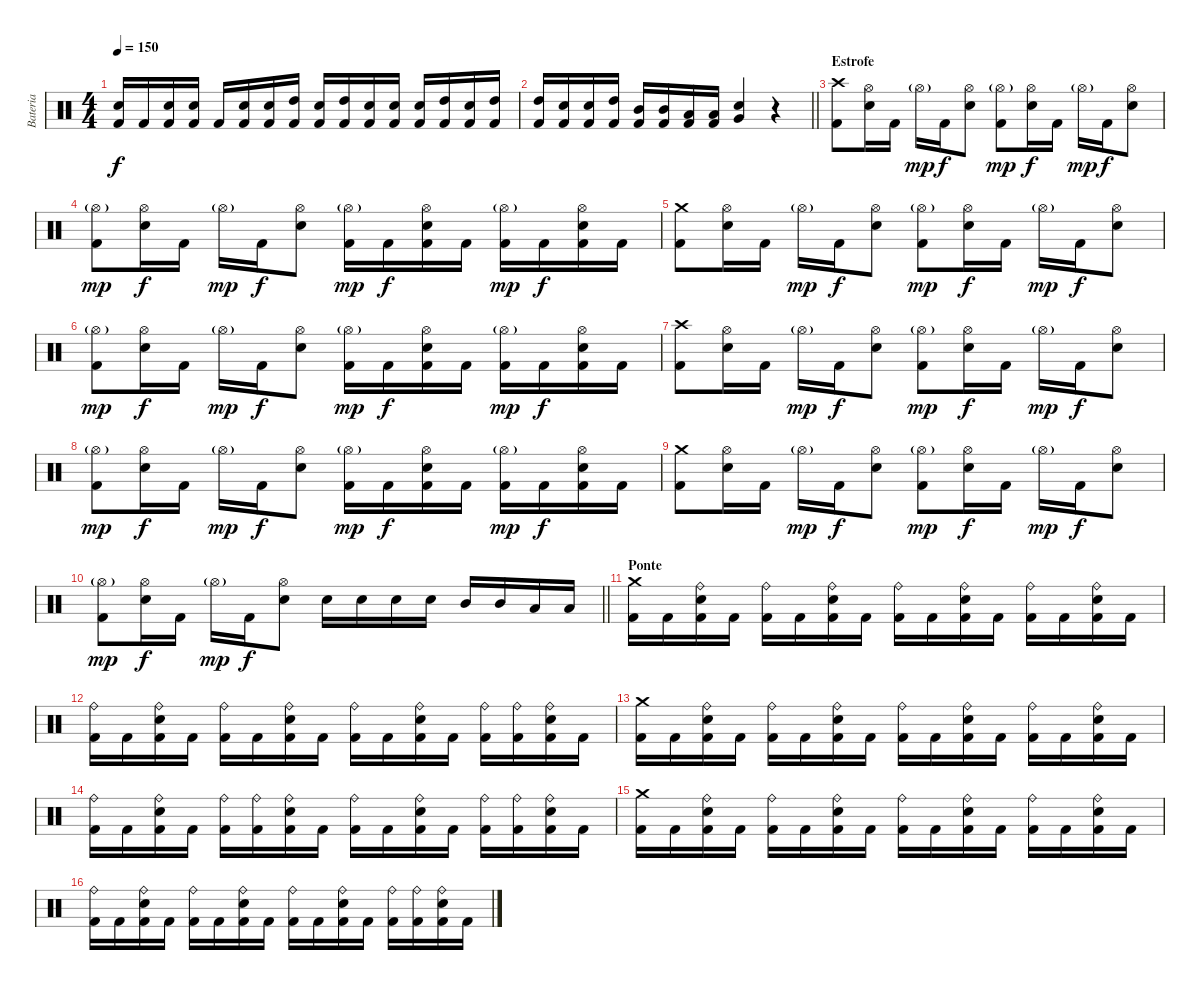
\track ("Bateria" "Bateria") {instrument percussion}
\staff {score}
\articulation defaults
\ts (4 4)
\tempo 150
\clef neutral
\ks c
("Electric Snare (hit)" "Kick (hit) 2").16{dy f} "Kick (hit) 2".16 ("Electric Snare (hit)" "Kick (hit) 2").16 ("Electric Snare (hit)" "Kick (hit) 2").16 "Kick (hit) 2".16 ("Electric Snare (hit)" "Kick (hit) 2").16 ("Electric Snare (hit)" "Kick (hit) 2").16 ("High Tom (hit)" "Kick (hit) 2").16 ("Electric Snare (hit)" "Kick (hit) 2").16 ("High Tom (hit)" "Kick (hit) 2").16 ("Electric Snare (hit)" "Kick (hit) 2").16 ("Electric Snare (hit)" "Kick (hit) 2").16 ("Electric Snare (hit)" "Kick (hit) 2").16 ("High Tom (hit)" "Kick (hit) 2").16 ("Electric Snare (hit)" "Kick (hit) 2").16 ("High Tom (hit)" "Kick (hit) 2").16 |
\barLineRight lightlight
("High Tom (hit)" "Kick (hit) 2").16 ("Electric Snare (hit)" "Kick (hit) 2").16 ("Electric Snare (hit)" "Kick (hit) 2").16 ("High Tom (hit)" "Kick (hit) 2").16 ("Mid Tom (hit)" "Kick (hit) 2").16 ("Mid Tom (hit)" "Kick (hit) 2").16 ("Low Tom (hit)" "Kick (hit) 2").16 ("Low Tom (hit)" "Kick (hit) 2").16 ("Very Low Tom (hit)" "Electric Snare (hit)").4 r.4 |
\section ("" "Estrofe")
("Crash high (hit)" "Kick (hit) 2").8 ("Hi-Hat (open)" "Electric Snare (hit)").16 "Kick (hit) 2".16 "Hi-Hat (open)"{g}.16{dy mp} "Kick (hit) 2".16{dy f} ("Hi-Hat (open)" "Electric Snare (hit)").8 ("Hi-Hat (open)"{g} "Kick (hit) 2").8{dy mp} ("Hi-Hat (open)" "Electric Snare (hit)").16{dy f} "Kick (hit) 2".16 "Hi-Hat (open)"{g}.16{dy mp} "Kick (hit) 2".16{dy f} ("Hi-Hat (open)" "Electric Snare (hit)").8 |
("Hi-Hat (open)"{g} "Kick (hit) 2").8{dy mp} ("Hi-Hat (open)" "Electric Snare (hit)").16{dy f} "Kick (hit) 2".16 "Hi-Hat (open)"{g}.16{dy mp} "Kick (hit) 2".16{dy f} ("Hi-Hat (open)" "Electric Snare (hit)").8 ("Hi-Hat (open)"{g} "Kick (hit) 2").16{dy mp} "Kick (hit) 2".16{dy f} ("Hi-Hat (open)" "Electric Snare (hit)" "Kick (hit) 2").16 "Kick (hit) 2".16 ("Hi-Hat (open)"{g} "Kick (hit) 2").16{dy mp} "Kick (hit) 2".16{dy f} ("Hi-Hat (open)" "Electric Snare (hit)" "Kick (hit) 2").16 "Kick (hit) 2".16 |
("Crash medium (hit)" "Kick (hit) 2").8 ("Hi-Hat (open)" "Electric Snare (hit)").16 "Kick (hit) 2".16 "Hi-Hat (open)"{g}.16{dy mp} "Kick (hit) 2".16{dy f} ("Hi-Hat (open)" "Electric Snare (hit)").8 ("Hi-Hat (open)"{g} "Kick (hit) 2").8{dy mp} ("Hi-Hat (open)" "Electric Snare (hit)").16{dy f} "Kick (hit) 2".16 "Hi-Hat (open)"{g}.16{dy mp} "Kick (hit) 2".16{dy f} ("Hi-Hat (open)" "Electric Snare (hit)").8 |
("Hi-Hat (open)"{g} "Kick (hit) 2").8{dy mp} ("Hi-Hat (open)" "Electric Snare (hit)").16{dy f} "Kick (hit) 2".16 "Hi-Hat (open)"{g}.16{dy mp} "Kick (hit) 2".16{dy f} ("Hi-Hat (open)" "Electric Snare (hit)").8 ("Hi-Hat (open)"{g} "Kick (hit) 2").16{dy mp} "Kick (hit) 2".16{dy f} ("Hi-Hat (open)" "Electric Snare (hit)" "Kick (hit) 2").16 "Kick (hit) 2".16 ("Hi-Hat (open)"{g} "Kick (hit) 2").16{dy mp} "Kick (hit) 2".16{dy f} ("Hi-Hat (open)" "Electric Snare (hit)" "Kick (hit) 2").16 "Kick (hit) 2".16 |
("Crash high (hit)" "Kick (hit) 2").8 ("Hi-Hat (open)" "Electric Snare (hit)").16 "Kick (hit) 2".16 "Hi-Hat (open)"{g}.16{dy mp} "Kick (hit) 2".16{dy f} ("Hi-Hat (open)" "Electric Snare (hit)").8 ("Hi-Hat (open)"{g} "Kick (hit) 2").8{dy mp} ("Hi-Hat (open)" "Electric Snare (hit)").16{dy f} "Kick (hit) 2".16 "Hi-Hat (open)"{g}.16{dy mp} "Kick (hit) 2".16{dy f} ("Hi-Hat (open)" "Electric Snare (hit)").8 |
("Hi-Hat (open)"{g} "Kick (hit) 2").8{dy mp} ("Hi-Hat (open)" "Electric Snare (hit)").16{dy f} "Kick (hit) 2".16 "Hi-Hat (open)"{g}.16{dy mp} "Kick (hit) 2".16{dy f} ("Hi-Hat (open)" "Electric Snare (hit)").8 ("Hi-Hat (open)"{g} "Kick (hit) 2").16{dy mp} "Kick (hit) 2".16{dy f} ("Hi-Hat (open)" "Electric Snare (hit)" "Kick (hit) 2").16 "Kick (hit) 2".16 ("Hi-Hat (open)"{g} "Kick (hit) 2").16{dy mp} "Kick (hit) 2".16{dy f} ("Hi-Hat (open)" "Electric Snare (hit)" "Kick (hit) 2").16 "Kick (hit) 2".16 |
("Crash medium (hit)" "Kick (hit) 2").8 ("Hi-Hat (open)" "Electric Snare (hit)").16 "Kick (hit) 2".16 "Hi-Hat (open)"{g}.16{dy mp} "Kick (hit) 2".16{dy f} ("Hi-Hat (open)" "Electric Snare (hit)").8 ("Hi-Hat (open)"{g} "Kick (hit) 2").8{dy mp} ("Hi-Hat (open)" "Electric Snare (hit)").16{dy f} "Kick (hit) 2".16 "Hi-Hat (open)"{g}.16{dy mp} "Kick (hit) 2".16{dy f} ("Hi-Hat (open)" "Electric Snare (hit)").8 |
\barLineRight lightlight
("Hi-Hat (open)"{g} "Kick (hit) 2").8{dy mp} ("Hi-Hat (open)" "Electric Snare (hit)").16{dy f} "Kick (hit) 2".16 "Hi-Hat (open)"{g}.16{dy mp} "Kick (hit) 2".16{dy f} ("Hi-Hat (open)" "Electric Snare (hit)").8 "Electric Snare (hit)".16 "Electric Snare (hit)".16 "Electric Snare (hit)".16 "Electric Snare (hit)".16 "Mid Tom (hit)".16 "Mid Tom (hit)".16 "Low Tom (hit)".16 "Low Tom (hit)".16 |
\section ("" "Ponte")
("Crash medium (hit)" "Kick (hit) 2").16 "Kick (hit) 2".16 ("Ride (bell)" "Electric Snare (hit)" "Kick (hit) 2").16 "Kick (hit) 2".16 ("Ride (bell)" "Kick (hit) 2").16 "Kick (hit) 2".16 ("Ride (bell)" "Electric Snare (hit)" "Kick (hit) 2").16 "Kick (hit) 2".16 ("Ride (bell)" "Kick (hit) 2").16 "Kick (hit) 2".16 ("Ride (bell)" "Electric Snare (hit)" "Kick (hit) 2").16 "Kick (hit) 2".16 ("Ride (bell)" "Kick (hit) 2").16 "Kick (hit) 2".16 ("Ride (bell)" "Electric Snare (hit)" "Kick (hit) 2").16 "Kick (hit) 2".16 |
("Ride (bell)" "Kick (hit) 2").16 "Kick (hit) 2".16 ("Ride (bell)" "Electric Snare (hit)" "Kick (hit) 2").16 "Kick (hit) 2".16 ("Ride (bell)" "Kick (hit) 2").16 "Kick (hit) 2".16 ("Ride (bell)" "Electric Snare (hit)" "Kick (hit) 2").16 "Kick (hit) 2".16 ("Ride (bell)" "Kick (hit) 2").16 "Kick (hit) 2".16 ("Ride (bell)" "Electric Snare (hit)" "Kick (hit) 2").16 "Kick (hit) 2".16 ("Ride (bell)" "Kick (hit) 2").16 ("Ride (bell)" "Kick (hit) 2").16 ("Ride (bell)" "Electric Snare (hit)" "Kick (hit) 2").16 "Kick (hit) 2".16 |
("Crash medium (hit)" "Kick (hit) 2").16 "Kick (hit) 2".16 ("Ride (bell)" "Electric Snare (hit)" "Kick (hit) 2").16 "Kick (hit) 2".16 ("Ride (bell)" "Kick (hit) 2").16 "Kick (hit) 2".16 ("Ride (bell)" "Electric Snare (hit)" "Kick (hit) 2").16 "Kick (hit) 2".16 ("Ride (bell)" "Kick (hit) 2").16 "Kick (hit) 2".16 ("Ride (bell)" "Electric Snare (hit)" "Kick (hit) 2").16 "Kick (hit) 2".16 ("Ride (bell)" "Kick (hit) 2").16 "Kick (hit) 2".16 ("Ride (bell)" "Electric Snare (hit)" "Kick (hit) 2").16 "Kick (hit) 2".16 |
("Ride (bell)" "Kick (hit) 2").16 "Kick (hit) 2".16 ("Ride (bell)" "Electric Snare (hit)" "Kick (hit) 2").16 "Kick (hit) 2".16 ("Ride (bell)" "Kick (hit) 2").16 ("Ride (bell)" "Kick (hit) 2").16 ("Ride (bell)" "Electric Snare (hit)" "Kick (hit) 2").16 "Kick (hit) 2".16 ("Ride (bell)" "Kick (hit) 2").16 "Kick (hit) 2".16 ("Ride (bell)" "Electric Snare (hit)" "Kick (hit) 2").16 "Kick (hit) 2".16 ("Ride (bell)" "Kick (hit) 2").16 ("Ride (bell)" "Kick (hit) 2").16 ("Ride (bell)" "Electric Snare (hit)" "Kick (hit) 2").16 "Kick (hit) 2".16 |
("Crash medium (hit)" "Kick (hit) 2").16 "Kick (hit) 2".16 ("Ride (bell)" "Electric Snare (hit)" "Kick (hit) 2").16 "Kick (hit) 2".16 ("Ride (bell)" "Kick (hit) 2").16 "Kick (hit) 2".16 ("Ride (bell)" "Electric Snare (hit)" "Kick (hit) 2").16 "Kick (hit) 2".16 ("Ride (bell)" "Kick (hit) 2").16 "Kick (hit) 2".16 ("Ride (bell)" "Electric Snare (hit)" "Kick (hit) 2").16 "Kick (hit) 2".16 ("Ride (bell)" "Kick (hit) 2").16 "Kick (hit) 2".16 ("Ride (bell)" "Electric Snare (hit)" "Kick (hit) 2").16 "Kick (hit) 2".16 |
("Ride (bell)" "Kick (hit) 2").16 "Kick (hit) 2".16 ("Ride (bell)" "Electric Snare (hit)" "Kick (hit) 2").16 "Kick (hit) 2".16 ("Ride (bell)" "Kick (hit) 2").16 "Kick (hit) 2".16 ("Ride (bell)" "Electric Snare (hit)" "Kick (hit) 2").16 "Kick (hit) 2".16 ("Ride (bell)" "Kick (hit) 2").16 "Kick (hit) 2".16 ("Ride (bell)" "Electric Snare (hit)" "Kick (hit) 2").16 "Kick (hit) 2".16 ("Ride (bell)" "Kick (hit) 2").16 ("Ride (bell)" "Kick (hit) 2").16 ("Ride (bell)" "Electric Snare (hit)" "Kick (hit) 2").16 "Kick (hit) 2".16
